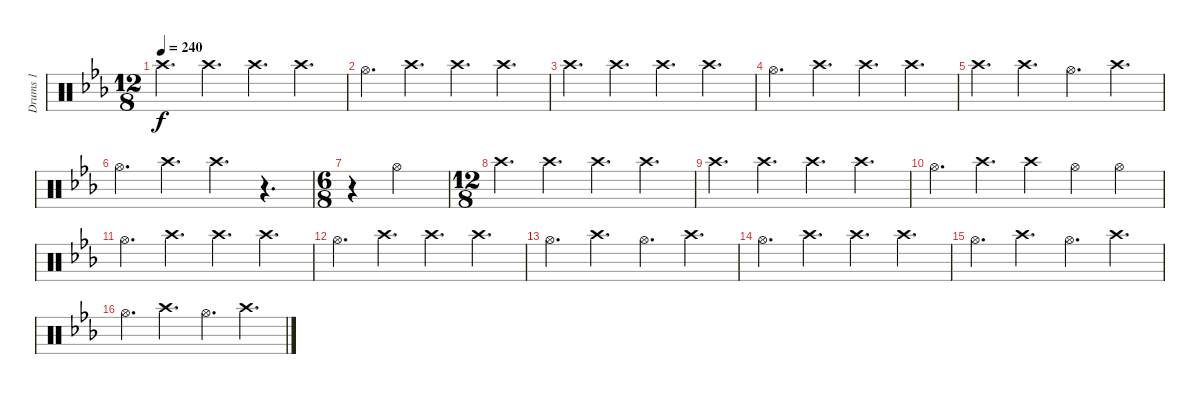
\track ("Drums 1" "Drums 1") {instrument percussion}
\staff {score}
\articulation defaults
\ts (12 8)
\tempo 240
\clef neutral
\ks eb "Crash high (hit)".4{d dy f} "Crash high (hit)".4{d} "Crash high (hit)".4{d} "Crash high (hit)".4{d}
|
"Hi-Hat (open)".4{d} "Crash high (hit)".4{d} "Crash high (hit)".4{d} "Crash high (hit)".4{d} |
"Crash high (hit)".4{d} "Crash high (hit)".4{d} "Crash high (hit)".4{d} "Crash high (hit)".4{d} |
"Hi-Hat (open)".4{d} "Crash high (hit)".4{d} "Crash high (hit)".4{d} "Crash high (hit)".4{d} |
"Crash high (hit)".4{d} "Crash high (hit)".4{d} "Hi-Hat (open)".4{d} "Crash high (hit)".4{d} |
"Hi-Hat (open)".4{d} "Crash high (hit)".4{d} "Crash high (hit)".4{d} r.4{d} |
\ts (6 8)
r.4 "Hi-Hat (open)".2 |
\ts (12 8)
"Crash high (hit)".4{d} "Crash high (hit)".4{d} "Crash high (hit)".4{d} "Crash high (hit)".4{d} |
"Crash high (hit)".4{d} "Crash high (hit)".4{d} "Crash high (hit)".4{d} "Crash high (hit)".4{d} |
"Hi-Hat (open)".4{d} "Crash high (hit)".4{d} "Crash high (hit)".4 "Hi-Hat (open)".4 "Hi-Hat (open)".4 |
"Hi-Hat (open)".4{d} "Crash high (hit)".4{d} "Crash high (hit)".4{d} "Crash high (hit)".4{d} |
"Hi-Hat (open)".4{d} "Crash high (hit)".4{d} "Crash high (hit)".4{d} "Crash high (hit)".4{d} |
"Hi-Hat (open)".4{d} "Crash high (hit)".4{d} "Hi-Hat (open)".4{d} "Crash high (hit)".4{d} |
"Hi-Hat (open)".4{d} "Crash high (hit)".4{d} "Crash high (hit)".4{d} "Crash high (hit)".4{d} |
"Hi-Hat (open)".4{d} "Crash high (hit)".4{d} "Hi-Hat (open)".4{d} "Crash high (hit)".4{d} |
"Hi-Hat (open)".4{d} "Crash high (hit)".4{d} "Hi-Hat (open)".4{d} "Crash high (hit)".4{d}
